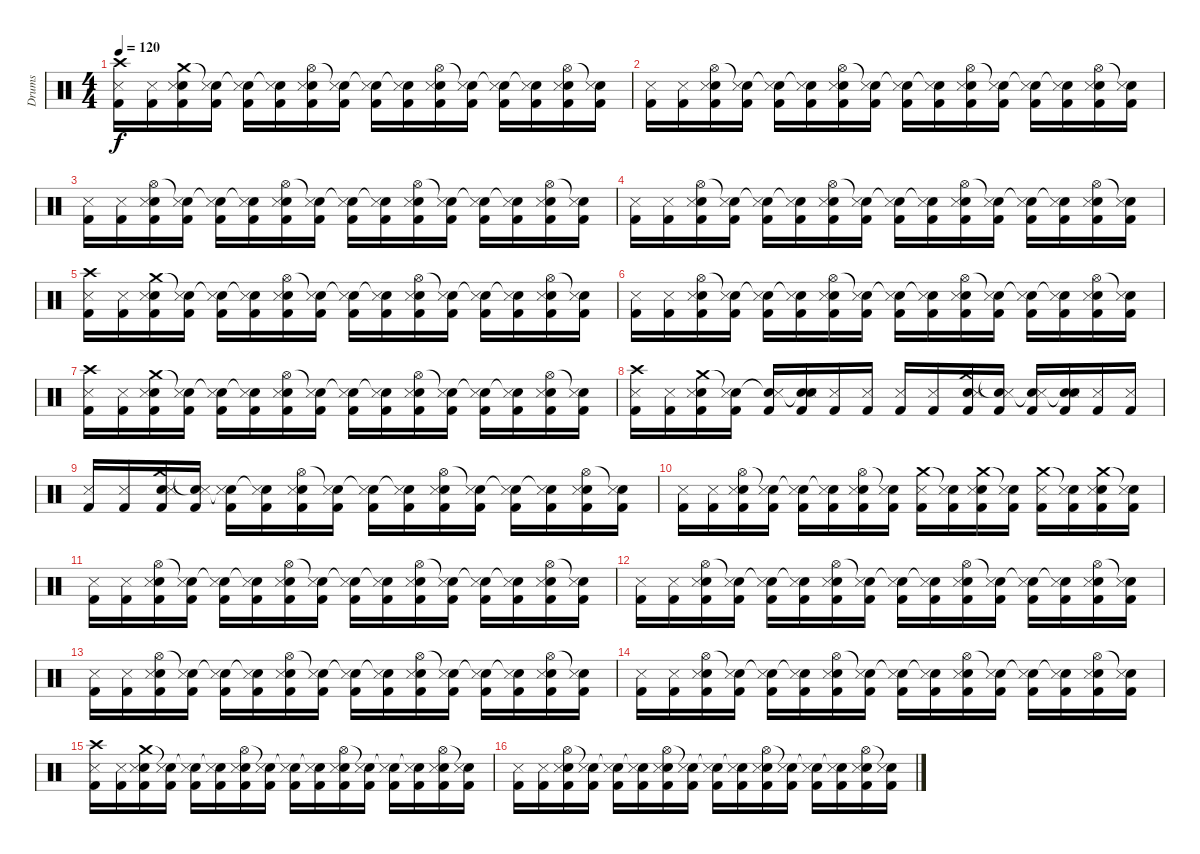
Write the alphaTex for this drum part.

\track ("Drums" "Drums") {instrument percussion}
\staff {score}
\articulation defaults
\ts (4 4)
\tempo 120
\clef neutral
\ks c
("Crash high (hit)" "Kick (hit) 2" "Snare (side stick) 3").16{dy f} ("Kick (hit) 2" "Snare (side stick) 3").16 ("Crash medium (hit)" "Electric Snare (hit)" "Kick (hit) 2" "Snare (side stick) 3").16 ("Snare (hit)"{t} "Kick (hit) 2" "Snare (side stick) 3").16 ("Snare (hit)"{t} "Kick (hit) 2" "Snare (side stick) 3").16 ("Snare (hit)"{t} "Kick (hit) 2" "Snare (side stick) 3").16 ("Hi-Hat (open)" "Electric Snare (hit)" "Kick (hit) 2" "Snare (side stick) 3").16 ("Snare (hit)"{t} "Kick (hit) 2" "Snare (side stick) 3").16 ("Snare (hit)"{t} "Kick (hit) 2" "Snare (side stick) 3").16 ("Snare (hit)"{t} "Kick (hit) 2" "Snare (side stick) 3").16 ("Hi-Hat (open)" "Electric Snare (hit)" "Kick (hit) 2" "Snare (side stick) 3").16 ("Snare (hit)"{t} "Kick (hit) 2" "Snare (side stick) 3").16 ("Snare (hit)"{t} "Kick (hit) 2" "Snare (side stick) 3").16 ("Snare (hit)"{t} "Kick (hit) 2" "Snare (side stick) 3").16 ("Hi-Hat (open)" "Electric Snare (hit)" "Kick (hit) 2" "Snare (side stick) 3").16 ("Snare (hit)"{t} "Kick (hit) 2" "Snare (side stick) 3").16 |
("Kick (hit) 2" "Snare (side stick) 3").16 ("Kick (hit) 2" "Snare (side stick) 3").16 ("Hi-Hat (open)" "Electric Snare (hit)" "Kick (hit) 2" "Snare (side stick) 3").16 ("Snare (hit)"{t} "Kick (hit) 2" "Snare (side stick) 3").16 ("Snare (hit)"{t} "Kick (hit) 2" "Snare (side stick) 3").16 ("Snare (hit)"{t} "Kick (hit) 2" "Snare (side stick) 3").16 ("Hi-Hat (open)" "Electric Snare (hit)" "Kick (hit) 2" "Snare (side stick) 3").16 ("Snare (hit)"{t} "Kick (hit) 2" "Snare (side stick) 3").16 ("Snare (hit)"{t} "Kick (hit) 2" "Snare (side stick) 3").16 ("Snare (hit)"{t} "Kick (hit) 2" "Snare (side stick) 3").16 ("Hi-Hat (open)" "Electric Snare (hit)" "Kick (hit) 2" "Snare (side stick) 3").16 ("Snare (hit)"{t} "Kick (hit) 2" "Snare (side stick) 3").16 ("Snare (hit)"{t} "Kick (hit) 2" "Snare (side stick) 3").16 ("Snare (hit)"{t} "Kick (hit) 2" "Snare (side stick) 3").16 ("Hi-Hat (open)" "Electric Snare (hit)" "Kick (hit) 2" "Snare (side stick) 3").16 ("Snare (hit)"{t} "Kick (hit) 2" "Snare (side stick) 3").16 |
("Kick (hit) 2" "Snare (side stick) 3").16 ("Kick (hit) 2" "Snare (side stick) 3").16 ("Hi-Hat (open)" "Electric Snare (hit)" "Kick (hit) 2" "Snare (side stick) 3").16 ("Snare (hit)"{t} "Kick (hit) 2" "Snare (side stick) 3").16 ("Snare (hit)"{t} "Kick (hit) 2" "Snare (side stick) 3").16 ("Snare (hit)"{t} "Kick (hit) 2" "Snare (side stick) 3").16 ("Hi-Hat (open)" "Electric Snare (hit)" "Kick (hit) 2" "Snare (side stick) 3").16 ("Snare (hit)"{t} "Kick (hit) 2" "Snare (side stick) 3").16 ("Snare (hit)"{t} "Kick (hit) 2" "Snare (side stick) 3").16 ("Snare (hit)"{t} "Kick (hit) 2" "Snare (side stick) 3").16 ("Hi-Hat (open)" "Electric Snare (hit)" "Kick (hit) 2" "Snare (side stick) 3").16 ("Snare (hit)"{t} "Kick (hit) 2" "Snare (side stick) 3").16 ("Snare (hit)"{t} "Kick (hit) 2" "Snare (side stick) 3").16 ("Snare (hit)"{t} "Kick (hit) 2" "Snare (side stick) 3").16 ("Hi-Hat (open)" "Electric Snare (hit)" "Kick (hit) 2" "Snare (side stick) 3").16 ("Snare (hit)"{t} "Kick (hit) 2" "Snare (side stick) 3").16 |
("Kick (hit) 2" "Snare (side stick) 3").16 ("Kick (hit) 2" "Snare (side stick) 3").16 ("Hi-Hat (open)" "Electric Snare (hit)" "Kick (hit) 2" "Snare (side stick) 3").16 ("Snare (hit)"{t} "Kick (hit) 2" "Snare (side stick) 3").16 ("Snare (hit)"{t} "Kick (hit) 2" "Snare (side stick) 3").16 ("Snare (hit)"{t} "Kick (hit) 2" "Snare (side stick) 3").16 ("Hi-Hat (open)" "Electric Snare (hit)" "Kick (hit) 2" "Snare (side stick) 3").16 ("Snare (hit)"{t} "Kick (hit) 2" "Snare (side stick) 3").16 ("Snare (hit)"{t} "Kick (hit) 2" "Snare (side stick) 3").16 ("Snare (hit)"{t} "Kick (hit) 2" "Snare (side stick) 3").16 ("Hi-Hat (open)" "Electric Snare (hit)" "Kick (hit) 2" "Snare (side stick) 3").16 ("Snare (hit)"{t} "Kick (hit) 2" "Snare (side stick) 3").16 ("Snare (hit)"{t} "Kick (hit) 2" "Snare (side stick) 3").16 ("Snare (hit)"{t} "Kick (hit) 2" "Snare (side stick) 3").16 ("Hi-Hat (open)" "Electric Snare (hit)" "Kick (hit) 2" "Snare (side stick) 3").16 ("Snare (hit)"{t} "Kick (hit) 2" "Snare (side stick) 3").16 |
("Crash high (hit)" "Kick (hit) 2" "Snare (side stick) 3").16 ("Kick (hit) 2" "Snare (side stick) 3").16 ("Crash medium (hit)" "Electric Snare (hit)" "Kick (hit) 2" "Snare (side stick) 3").16 ("Snare (hit)"{t} "Kick (hit) 2" "Snare (side stick) 3").16 ("Snare (hit)"{t} "Kick (hit) 2" "Snare (side stick) 3").16 ("Snare (hit)"{t} "Kick (hit) 2" "Snare (side stick) 3").16 ("Hi-Hat (open)" "Electric Snare (hit)" "Kick (hit) 2" "Snare (side stick) 3").16 ("Snare (hit)"{t} "Kick (hit) 2" "Snare (side stick) 3").16 ("Snare (hit)"{t} "Kick (hit) 2" "Snare (side stick) 3").16 ("Snare (hit)"{t} "Kick (hit) 2" "Snare (side stick) 3").16 ("Hi-Hat (open)" "Electric Snare (hit)" "Kick (hit) 2" "Snare (side stick) 3").16 ("Snare (hit)"{t} "Kick (hit) 2" "Snare (side stick) 3").16 ("Snare (hit)"{t} "Kick (hit) 2" "Snare (side stick) 3").16 ("Snare (hit)"{t} "Kick (hit) 2" "Snare (side stick) 3").16 ("Hi-Hat (open)" "Electric Snare (hit)" "Kick (hit) 2" "Snare (side stick) 3").16 ("Snare (hit)"{t} "Kick (hit) 2" "Snare (side stick) 3").16 |
("Kick (hit) 2" "Snare (side stick) 3").16 ("Kick (hit) 2" "Snare (side stick) 3").16 ("Hi-Hat (open)" "Electric Snare (hit)" "Kick (hit) 2" "Snare (side stick) 3").16 ("Snare (hit)"{t} "Kick (hit) 2" "Snare (side stick) 3").16 ("Snare (hit)"{t} "Kick (hit) 2" "Snare (side stick) 3").16 ("Snare (hit)"{t} "Kick (hit) 2" "Snare (side stick) 3").16 ("Hi-Hat (open)" "Electric Snare (hit)" "Kick (hit) 2" "Snare (side stick) 3").16 ("Snare (hit)"{t} "Kick (hit) 2" "Snare (side stick) 3").16 ("Snare (hit)"{t} "Kick (hit) 2" "Snare (side stick) 3").16 ("Snare (hit)"{t} "Kick (hit) 2" "Snare (side stick) 3").16 ("Hi-Hat (open)" "Electric Snare (hit)" "Kick (hit) 2" "Snare (side stick) 3").16 ("Snare (hit)"{t} "Kick (hit) 2" "Snare (side stick) 3").16 ("Snare (hit)"{t} "Kick (hit) 2" "Snare (side stick) 3").16 ("Snare (hit)"{t} "Kick (hit) 2" "Snare (side stick) 3").16 ("Hi-Hat (open)" "Electric Snare (hit)" "Kick (hit) 2" "Snare (side stick) 3").16 ("Snare (hit)"{t} "Kick (hit) 2" "Snare (side stick) 3").16 |
("Crash high (hit)" "Kick (hit) 2" "Snare (side stick) 3").16 ("Kick (hit) 2" "Snare (side stick) 3").16 ("Crash medium (hit)" "Electric Snare (hit)" "Kick (hit) 2" "Snare (side stick) 3").16 ("Snare (hit)"{t} "Kick (hit) 2" "Snare (side stick) 3").16 ("Snare (hit)"{t} "Kick (hit) 2" "Snare (side stick) 3").16 ("Snare (hit)"{t} "Kick (hit) 2" "Snare (side stick) 3").16 ("Hi-Hat (open)" "Electric Snare (hit)" "Kick (hit) 2" "Snare (side stick) 3").16 ("Snare (hit)"{t} "Kick (hit) 2" "Snare (side stick) 3").16 ("Snare (hit)"{t} "Kick (hit) 2" "Snare (side stick) 3").16 ("Snare (hit)"{t} "Kick (hit) 2" "Snare (side stick) 3").16 ("Hi-Hat (open)" "Electric Snare (hit)" "Kick (hit) 2" "Snare (side stick) 3").16 ("Snare (hit)"{t} "Kick (hit) 2" "Snare (side stick) 3").16 ("Snare (hit)"{t} "Kick (hit) 2" "Snare (side stick) 3").16 ("Snare (hit)"{t} "Kick (hit) 2" "Snare (side stick) 3").16 ("Hi-Hat (open)" "Electric Snare (hit)" "Kick (hit) 2" "Snare (side stick) 3").16 ("Snare (hit)"{t} "Kick (hit) 2" "Snare (side stick) 3").16 |
("Crash high (hit)" "Kick (hit) 2" "Snare (side stick) 3").16 ("Kick (hit) 2" "Snare (side stick) 3").16 ("Crash medium (hit)" "Electric Snare (hit)" "Kick (hit) 2" "Snare (side stick) 3").16 ("Snare (hit)"{t} "Kick (hit) 2" "Snare (side stick) 3").16 ("Snare (hit)"{t} "Kick (hit) 2" "Snare (side stick) 3").16 ("Snare (hit)"{t} "Electric Snare (hit)" "Kick (hit) 2" "Snare (side stick) 3").16 ("Kick (hit) 2" "Snare (side stick) 3").16 ("Kick (hit) 2" "Snare (side stick) 3").16 ("Kick (hit) 2" "Snare (side stick) 3").16 ("Kick (hit) 2" "Snare (side stick) 3").16 ("Crash medium (hit)" "Electric Snare (hit)" "Kick (hit) 2" "Snare (side stick) 3").16 ("Snare (hit)"{t} "Kick (hit) 2" "Snare (side stick) 3").16 ("Snare (hit)"{t} "Kick (hit) 2" "Snare (side stick) 3").16 ("Snare (hit)"{t} "Electric Snare (hit)" "Kick (hit) 2" "Snare (side stick) 3").16 ("Kick (hit) 2" "Snare (side stick) 3").16 ("Kick (hit) 2" "Snare (side stick) 3").16 |
("Kick (hit) 2" "Snare (side stick) 3").16 ("Kick (hit) 2" "Snare (side stick) 3").16 ("Crash medium (hit)" "Electric Snare (hit)" "Kick (hit) 2" "Snare (side stick) 3").16 ("Snare (hit)"{t} "Kick (hit) 2" "Snare (side stick) 3").16 ("Snare (hit)"{t} "Kick (hit) 2" "Snare (side stick) 3").16 ("Snare (hit)"{t} "Kick (hit) 2" "Snare (side stick) 3").16 ("Hi-Hat (open)" "Electric Snare (hit)" "Kick (hit) 2" "Snare (side stick) 3").16 ("Snare (hit)"{t} "Kick (hit) 2" "Snare (side stick) 3").16 ("Snare (hit)"{t} "Kick (hit) 2" "Snare (side stick) 3").16 ("Snare (hit)"{t} "Kick (hit) 2" "Snare (side stick) 3").16 ("Hi-Hat (open)" "Electric Snare (hit)" "Kick (hit) 2" "Snare (side stick) 3").16 ("Snare (hit)"{t} "Kick (hit) 2" "Snare (side stick) 3").16 ("Snare (hit)"{t} "Kick (hit) 2" "Snare (side stick) 3").16 ("Snare (hit)"{t} "Kick (hit) 2" "Snare (side stick) 3").16 ("Hi-Hat (open)" "Electric Snare (hit)" "Kick (hit) 2" "Snare (side stick) 3").16 ("Snare (hit)"{t} "Kick (hit) 2" "Snare (side stick) 3").16 |
("Kick (hit) 2" "Snare (side stick) 3").16 ("Kick (hit) 2" "Snare (side stick) 3").16 ("Hi-Hat (open)" "Electric Snare (hit)" "Kick (hit) 2" "Snare (side stick) 3").16 ("Snare (hit)"{t} "Kick (hit) 2" "Snare (side stick) 3").16 ("Snare (hit)"{t} "Kick (hit) 2" "Snare (side stick) 3").16 ("Snare (hit)"{t} "Kick (hit) 2" "Snare (side stick) 3").16 ("Hi-Hat (open)" "Electric Snare (hit)" "Kick (hit) 2" "Snare (side stick) 3").16 ("Snare (hit)"{t} "Kick (hit) 2" "Snare (side stick) 3").16 ("Crash medium (hit)" "Kick (hit) 2" "Snare (side stick) 3").16 ("Snare (hit)"{t} "Kick (hit) 2" "Snare (side stick) 3").16 ("Crash medium (hit)" "Electric Snare (hit)" "Kick (hit) 2" "Snare (side stick) 3").16 ("Snare (hit)"{t} "Kick (hit) 2" "Snare (side stick) 3").16 ("Crash medium (hit)" "Kick (hit) 2" "Snare (side stick) 3").16 ("Snare (hit)"{t} "Kick (hit) 2" "Snare (side stick) 3").16 ("Crash medium (hit)" "Electric Snare (hit)" "Kick (hit) 2" "Snare (side stick) 3").16 ("Snare (hit)"{t} "Kick (hit) 2" "Snare (side stick) 3").16 |
("Kick (hit) 2" "Snare (side stick) 3").16 ("Kick (hit) 2" "Snare (side stick) 3").16 ("Hi-Hat (open)" "Electric Snare (hit)" "Kick (hit) 2" "Snare (side stick) 3").16 ("Snare (hit)"{t} "Kick (hit) 2" "Snare (side stick) 3").16 ("Snare (hit)"{t} "Kick (hit) 2" "Snare (side stick) 3").16 ("Snare (hit)"{t} "Kick (hit) 2" "Snare (side stick) 3").16 ("Hi-Hat (open)" "Electric Snare (hit)" "Kick (hit) 2" "Snare (side stick) 3").16 ("Snare (hit)"{t} "Kick (hit) 2" "Snare (side stick) 3").16 ("Snare (hit)"{t} "Kick (hit) 2" "Snare (side stick) 3").16 ("Snare (hit)"{t} "Kick (hit) 2" "Snare (side stick) 3").16 ("Hi-Hat (open)" "Electric Snare (hit)" "Kick (hit) 2" "Snare (side stick) 3").16 ("Snare (hit)"{t} "Kick (hit) 2" "Snare (side stick) 3").16 ("Snare (hit)"{t} "Kick (hit) 2" "Snare (side stick) 3").16 ("Snare (hit)"{t} "Kick (hit) 2" "Snare (side stick) 3").16 ("Hi-Hat (open)" "Electric Snare (hit)" "Kick (hit) 2" "Snare (side stick) 3").16 ("Snare (hit)"{t} "Kick (hit) 2" "Snare (side stick) 3").16 |
("Kick (hit) 2" "Snare (side stick) 3").16 ("Kick (hit) 2" "Snare (side stick) 3").16 ("Hi-Hat (open)" "Electric Snare (hit)" "Kick (hit) 2" "Snare (side stick) 3").16 ("Snare (hit)"{t} "Kick (hit) 2" "Snare (side stick) 3").16 ("Snare (hit)"{t} "Kick (hit) 2" "Snare (side stick) 3").16 ("Snare (hit)"{t} "Kick (hit) 2" "Snare (side stick) 3").16 ("Hi-Hat (open)" "Electric Snare (hit)" "Kick (hit) 2" "Snare (side stick) 3").16 ("Snare (hit)"{t} "Kick (hit) 2" "Snare (side stick) 3").16 ("Snare (hit)"{t} "Kick (hit) 2" "Snare (side stick) 3").16 ("Snare (hit)"{t} "Kick (hit) 2" "Snare (side stick) 3").16 ("Hi-Hat (open)" "Electric Snare (hit)" "Kick (hit) 2" "Snare (side stick) 3").16 ("Snare (hit)"{t} "Kick (hit) 2" "Snare (side stick) 3").16 ("Snare (hit)"{t} "Kick (hit) 2" "Snare (side stick) 3").16 ("Snare (hit)"{t} "Kick (hit) 2" "Snare (side stick) 3").16 ("Hi-Hat (open)" "Electric Snare (hit)" "Kick (hit) 2" "Snare (side stick) 3").16 ("Snare (hit)"{t} "Kick (hit) 2" "Snare (side stick) 3").16 |
("Kick (hit) 2" "Snare (side stick) 3").16 ("Kick (hit) 2" "Snare (side stick) 3").16 ("Hi-Hat (open)" "Electric Snare (hit)" "Kick (hit) 2" "Snare (side stick) 3").16 ("Snare (hit)"{t} "Kick (hit) 2" "Snare (side stick) 3").16 ("Snare (hit)"{t} "Kick (hit) 2" "Snare (side stick) 3").16 ("Snare (hit)"{t} "Kick (hit) 2" "Snare (side stick) 3").16 ("Hi-Hat (open)" "Electric Snare (hit)" "Kick (hit) 2" "Snare (side stick) 3").16 ("Snare (hit)"{t} "Kick (hit) 2" "Snare (side stick) 3").16 ("Snare (hit)"{t} "Kick (hit) 2" "Snare (side stick) 3").16 ("Snare (hit)"{t} "Kick (hit) 2" "Snare (side stick) 3").16 ("Hi-Hat (open)" "Electric Snare (hit)" "Kick (hit) 2" "Snare (side stick) 3").16 ("Snare (hit)"{t} "Kick (hit) 2" "Snare (side stick) 3").16 ("Snare (hit)"{t} "Kick (hit) 2" "Snare (side stick) 3").16 ("Snare (hit)"{t} "Kick (hit) 2" "Snare (side stick) 3").16 ("Hi-Hat (open)" "Electric Snare (hit)" "Kick (hit) 2" "Snare (side stick) 3").16 ("Snare (hit)"{t} "Kick (hit) 2" "Snare (side stick) 3").16 |
("Kick (hit) 2" "Snare (side stick) 3").16 ("Kick (hit) 2" "Snare (side stick) 3").16 ("Hi-Hat (open)" "Electric Snare (hit)" "Kick (hit) 2" "Snare (side stick) 3").16 ("Snare (hit)"{t} "Kick (hit) 2" "Snare (side stick) 3").16 ("Snare (hit)"{t} "Kick (hit) 2" "Snare (side stick) 3").16 ("Snare (hit)"{t} "Kick (hit) 2" "Snare (side stick) 3").16 ("Hi-Hat (open)" "Electric Snare (hit)" "Kick (hit) 2" "Snare (side stick) 3").16 ("Snare (hit)"{t} "Kick (hit) 2" "Snare (side stick) 3").16 ("Snare (hit)"{t} "Kick (hit) 2" "Snare (side stick) 3").16 ("Snare (hit)"{t} "Kick (hit) 2" "Snare (side stick) 3").16 ("Hi-Hat (open)" "Electric Snare (hit)" "Kick (hit) 2" "Snare (side stick) 3").16 ("Snare (hit)"{t} "Kick (hit) 2" "Snare (side stick) 3").16 ("Snare (hit)"{t} "Kick (hit) 2" "Snare (side stick) 3").16 ("Snare (hit)"{t} "Kick (hit) 2" "Snare (side stick) 3").16 ("Hi-Hat (open)" "Electric Snare (hit)" "Kick (hit) 2" "Snare (side stick) 3").16 ("Snare (hit)"{t} "Kick (hit) 2" "Snare (side stick) 3").16 |
("Crash high (hit)" "Kick (hit) 2" "Snare (side stick) 3").16 ("Kick (hit) 2" "Snare (side stick) 3").16 ("Crash medium (hit)" "Electric Snare (hit)" "Kick (hit) 2" "Snare (side stick) 3").16 ("Snare (hit)"{t} "Kick (hit) 2" "Snare (side stick) 3").16 ("Snare (hit)"{t} "Kick (hit) 2" "Snare (side stick) 3").16 ("Snare (hit)"{t} "Kick (hit) 2" "Snare (side stick) 3").16 ("Hi-Hat (open)" "Electric Snare (hit)" "Kick (hit) 2" "Snare (side stick) 3").16 ("Snare (hit)"{t} "Kick (hit) 2" "Snare (side stick) 3").16 ("Snare (hit)"{t} "Kick (hit) 2" "Snare (side stick) 3").16 ("Snare (hit)"{t} "Kick (hit) 2" "Snare (side stick) 3").16 ("Hi-Hat (open)" "Electric Snare (hit)" "Kick (hit) 2" "Snare (side stick) 3").16 ("Snare (hit)"{t} "Kick (hit) 2" "Snare (side stick) 3").16 ("Snare (hit)"{t} "Kick (hit) 2" "Snare (side stick) 3").16 ("Snare (hit)"{t} "Kick (hit) 2" "Snare (side stick) 3").16 ("Hi-Hat (open)" "Electric Snare (hit)" "Kick (hit) 2" "Snare (side stick) 3").16 ("Snare (hit)"{t} "Kick (hit) 2" "Snare (side stick) 3").16 |
("Kick (hit) 2" "Snare (side stick) 3").16 ("Kick (hit) 2" "Snare (side stick) 3").16 ("Hi-Hat (open)" "Electric Snare (hit)" "Kick (hit) 2" "Snare (side stick) 3").16 ("Snare (hit)"{t} "Kick (hit) 2" "Snare (side stick) 3").16 ("Snare (hit)"{t} "Kick (hit) 2" "Snare (side stick) 3").16 ("Snare (hit)"{t} "Kick (hit) 2" "Snare (side stick) 3").16 ("Hi-Hat (open)" "Electric Snare (hit)" "Kick (hit) 2" "Snare (side stick) 3").16 ("Snare (hit)"{t} "Kick (hit) 2" "Snare (side stick) 3").16 ("Snare (hit)"{t} "Kick (hit) 2" "Snare (side stick) 3").16 ("Snare (hit)"{t} "Kick (hit) 2" "Snare (side stick) 3").16 ("Hi-Hat (open)" "Electric Snare (hit)" "Kick (hit) 2" "Snare (side stick) 3").16 ("Snare (hit)"{t} "Kick (hit) 2" "Snare (side stick) 3").16 ("Snare (hit)"{t} "Kick (hit) 2" "Snare (side stick) 3").16 ("Snare (hit)"{t} "Kick (hit) 2" "Snare (side stick) 3").16 ("Hi-Hat (open)" "Electric Snare (hit)" "Kick (hit) 2" "Snare (side stick) 3").16 ("Snare (hit)"{t} "Kick (hit) 2" "Snare (side stick) 3").16
